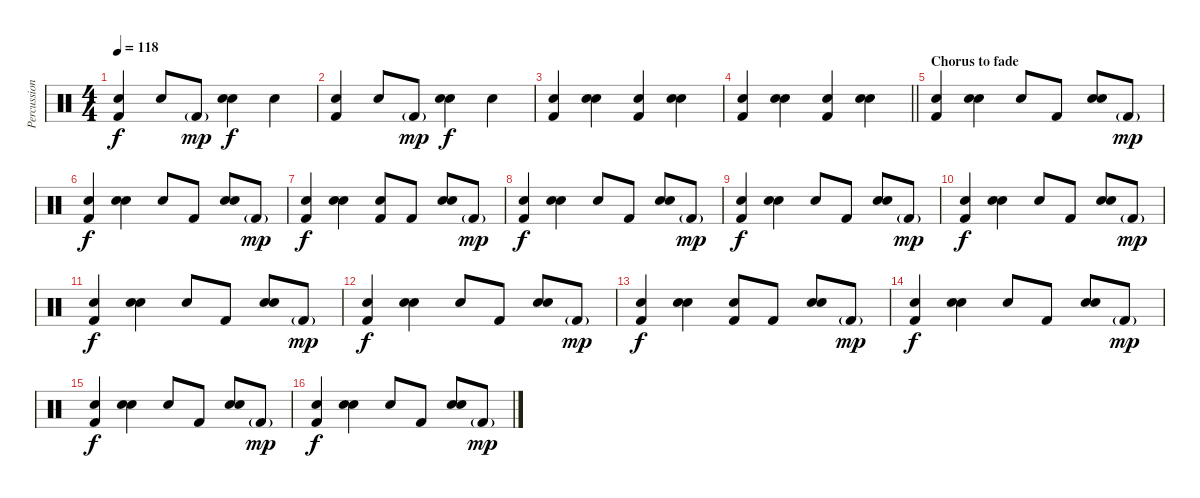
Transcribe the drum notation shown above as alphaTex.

\track ("Percussion" "Percussion") {instrument percussion}
\staff {score}
\articulation defaults
\ts (4 4)
\tempo 118
\clef neutral
\ks c
("Hand Clap (hit)" "Kick (hit) 2").4{dy f} "Hand Clap (hit)".8 "Kick (hit) 2"{g}.8{dy mp} ("Hand Clap (hit)" "Snare (hit) 2").4{dy f} "Hand Clap (hit)".4 |
("Hand Clap (hit)" "Kick (hit) 2").4 "Hand Clap (hit)".8 "Kick (hit) 2"{g}.8{dy mp} ("Hand Clap (hit)" "Snare (hit) 2").4{dy f} "Hand Clap (hit)".4 |
("Hand Clap (hit)" "Kick (hit) 2").4 ("Hand Clap (hit)" "Snare (hit) 2").4 ("Hand Clap (hit)" "Kick (hit) 2").4 ("Hand Clap (hit)" "Snare (hit) 2").4 |
\barLineRight lightlight
("Hand Clap (hit)" "Kick (hit) 2").4 ("Hand Clap (hit)" "Snare (hit) 2").4 ("Hand Clap (hit)" "Kick (hit) 2").4 ("Hand Clap (hit)" "Snare (hit) 2").4 |
\section ("" "Chorus to fade")
("Hand Clap (hit)" "Kick (hit) 2").4 ("Hand Clap (hit)" "Snare (hit) 2").4 "Hand Clap (hit)".8 "Kick (hit) 2".8 ("Hand Clap (hit)" "Snare (hit) 2").8 "Kick (hit) 2"{g}.8{dy mp} |
("Hand Clap (hit)" "Kick (hit) 2").4{dy f} ("Hand Clap (hit)" "Snare (hit) 2").4 "Hand Clap (hit)".8 "Kick (hit) 2".8 ("Hand Clap (hit)" "Snare (hit) 2").8 "Kick (hit) 2"{g}.8{dy mp} |
("Hand Clap (hit)" "Kick (hit) 2").4{dy f} ("Hand Clap (hit)" "Snare (hit) 2").4 ("Hand Clap (hit)" "Kick (hit) 2").8 "Kick (hit) 2".8 ("Hand Clap (hit)" "Snare (hit) 2").8 "Kick (hit) 2"{g}.8{dy mp} |
("Hand Clap (hit)" "Kick (hit) 2").4{dy f} ("Hand Clap (hit)" "Snare (hit) 2").4 "Hand Clap (hit)".8 "Kick (hit) 2".8 ("Hand Clap (hit)" "Snare (hit) 2").8 "Kick (hit) 2"{g}.8{dy mp} |
("Hand Clap (hit)" "Kick (hit) 2").4{dy f} ("Hand Clap (hit)" "Snare (hit) 2").4 "Hand Clap (hit)".8 "Kick (hit) 2".8 ("Hand Clap (hit)" "Snare (hit) 2").8 "Kick (hit) 2"{g}.8{dy mp} |
("Hand Clap (hit)" "Kick (hit) 2").4{dy f} ("Hand Clap (hit)" "Snare (hit) 2").4 "Hand Clap (hit)".8 "Kick (hit) 2".8 ("Hand Clap (hit)" "Snare (hit) 2").8 "Kick (hit) 2"{g}.8{dy mp} |
("Hand Clap (hit)" "Kick (hit) 2").4{dy f} ("Hand Clap (hit)" "Snare (hit) 2").4 "Hand Clap (hit)".8 "Kick (hit) 2".8 ("Hand Clap (hit)" "Snare (hit) 2").8 "Kick (hit) 2"{g}.8{dy mp} |
("Hand Clap (hit)" "Kick (hit) 2").4{dy f} ("Hand Clap (hit)" "Snare (hit) 2").4 "Hand Clap (hit)".8 "Kick (hit) 2".8 ("Hand Clap (hit)" "Snare (hit) 2").8 "Kick (hit) 2"{g}.8{dy mp} |
("Hand Clap (hit)" "Kick (hit) 2").4{dy f} ("Hand Clap (hit)" "Snare (hit) 2").4 ("Hand Clap (hit)" "Kick (hit) 2").8 "Kick (hit) 2".8 ("Hand Clap (hit)" "Snare (hit) 2").8 "Kick (hit) 2"{g}.8{dy mp} |
("Hand Clap (hit)" "Kick (hit) 2").4{dy f} ("Hand Clap (hit)" "Snare (hit) 2").4 "Hand Clap (hit)".8 "Kick (hit) 2".8 ("Hand Clap (hit)" "Snare (hit) 2").8 "Kick (hit) 2"{g}.8{dy mp} |
("Hand Clap (hit)" "Kick (hit) 2").4{dy f} ("Hand Clap (hit)" "Snare (hit) 2").4 "Hand Clap (hit)".8 "Kick (hit) 2".8 ("Hand Clap (hit)" "Snare (hit) 2").8 "Kick (hit) 2"{g}.8{dy mp} |
("Hand Clap (hit)" "Kick (hit) 2").4{dy f} ("Hand Clap (hit)" "Snare (hit) 2").4 "Hand Clap (hit)".8 "Kick (hit) 2".8 ("Hand Clap (hit)" "Snare (hit) 2").8 "Kick (hit) 2"{g}.8{dy mp}
